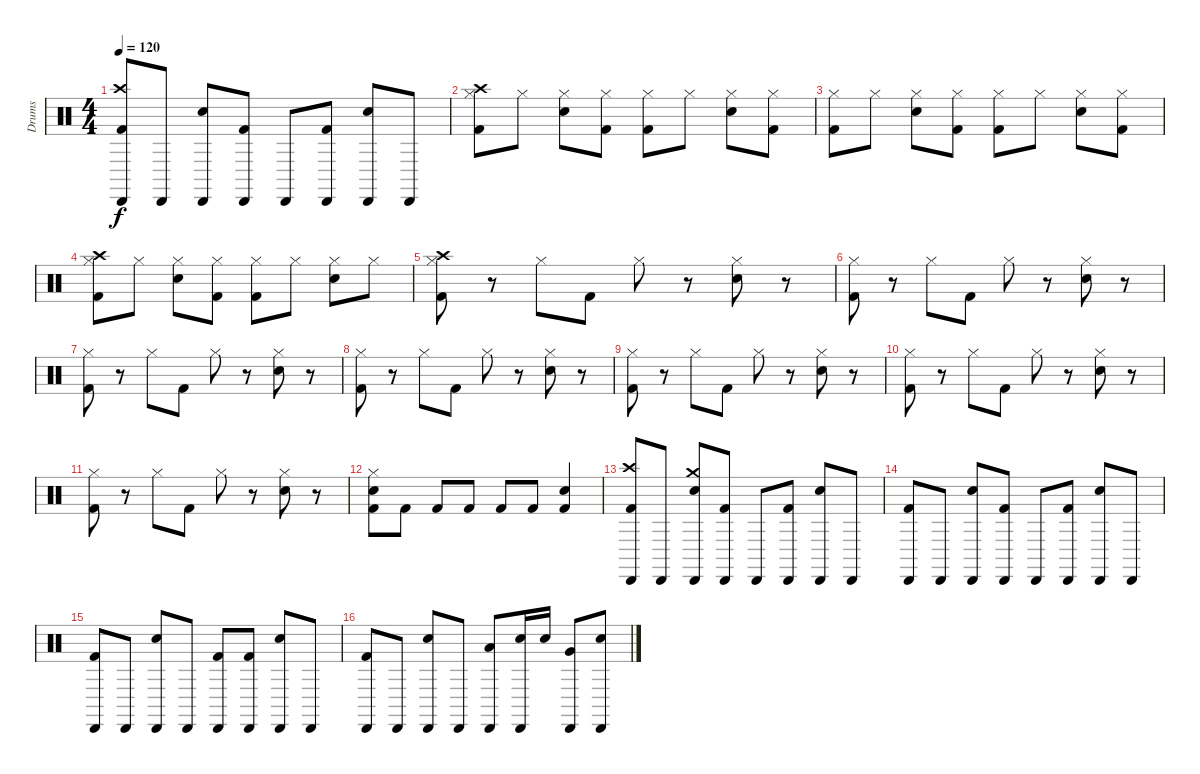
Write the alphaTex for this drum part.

\track ("Drums" "Drums") {instrument percussion}
\staff {score}
\articulation defaults
\ts (4 4)
\tempo 120
\clef neutral
\ks c
("Cabasa (hit)" "Crash high (hit)" "Kick (hit) 2").8{dy f} "Cabasa (hit)".8 ("Cabasa (hit)" "Electric Snare (hit)").8 ("Cabasa (hit)" "Kick (hit) 2").8 "Cabasa (hit)".8 ("Cabasa (hit)" "Kick (hit) 2").8 ("Cabasa (hit)" "Electric Snare (hit)").8 "Cabasa (hit)".8 |
("Hi-Hat (closed)" "Crash high (hit)" "Kick (hit) 2").8 "Hi-Hat (closed)".8 ("Hi-Hat (closed)" "Electric Snare (hit)").8 ("Hi-Hat (closed)" "Kick (hit) 2").8 ("Hi-Hat (closed)" "Kick (hit) 2").8 "Hi-Hat (closed)".8 ("Hi-Hat (closed)" "Electric Snare (hit)").8 ("Hi-Hat (closed)" "Kick (hit) 2").8 |
("Hi-Hat (closed)" "Kick (hit) 2").8 "Hi-Hat (closed)".8 ("Hi-Hat (closed)" "Electric Snare (hit)").8 ("Hi-Hat (closed)" "Kick (hit) 2").8 ("Hi-Hat (closed)" "Kick (hit) 2").8 "Hi-Hat (closed)".8 ("Hi-Hat (closed)" "Electric Snare (hit)").8 ("Hi-Hat (closed)" "Kick (hit) 2").8 |
("Hi-Hat (closed)" "Crash high (hit)" "Kick (hit) 2").8 "Hi-Hat (closed)".8 ("Hi-Hat (closed)" "Electric Snare (hit)").8 ("Hi-Hat (closed)" "Kick (hit) 2").8 ("Hi-Hat (closed)" "Kick (hit) 2").8 "Hi-Hat (closed)".8 ("Hi-Hat (closed)" "Electric Snare (hit)").8 "Hi-Hat (closed)".8 |
("Hi-Hat (closed)" "Crash high (hit)" "Kick (hit) 2").8 r.8 "Hi-Hat (closed)".8 "Kick (hit) 2".8 "Hi-Hat (closed)".8 r.8 ("Hi-Hat (closed)" "Electric Snare (hit)").8 r.8 |
("Hi-Hat (closed)" "Kick (hit) 2").8 r.8 "Hi-Hat (closed)".8 "Kick (hit) 2".8 "Hi-Hat (closed)".8 r.8 ("Hi-Hat (closed)" "Electric Snare (hit)").8 r.8 |
("Hi-Hat (closed)" "Kick (hit) 2").8 r.8 "Hi-Hat (closed)".8 "Kick (hit) 2".8 "Hi-Hat (closed)".8 r.8 ("Hi-Hat (closed)" "Electric Snare (hit)").8 r.8 |
("Hi-Hat (closed)" "Kick (hit) 2").8 r.8 "Hi-Hat (closed)".8 "Kick (hit) 2".8 "Hi-Hat (closed)".8 r.8 ("Hi-Hat (closed)" "Electric Snare (hit)").8 r.8 |
("Hi-Hat (closed)" "Kick (hit) 2").8 r.8 "Hi-Hat (closed)".8 "Kick (hit) 2".8 "Hi-Hat (closed)".8 r.8 ("Hi-Hat (closed)" "Electric Snare (hit)").8 r.8 |
("Hi-Hat (closed)" "Kick (hit) 2").8 r.8 "Hi-Hat (closed)".8 "Kick (hit) 2".8 "Hi-Hat (closed)".8 r.8 ("Hi-Hat (closed)" "Electric Snare (hit)").8 r.8 |
("Hi-Hat (closed)" "Kick (hit) 2").8 r.8 "Hi-Hat (closed)".8 "Kick (hit) 2".8 "Hi-Hat (closed)".8 r.8 ("Hi-Hat (closed)" "Electric Snare (hit)").8 r.8 |
("Hi-Hat (closed)" "Electric Snare (hit)" "Kick (hit) 2").8 "Kick (hit) 2".8 "Kick (hit) 2".8 "Kick (hit) 2".8 "Kick (hit) 2".8 "Kick (hit) 2".8 ("Electric Snare (hit)" "Kick (hit) 2").4 |
("Cabasa (hit)" "Crash high (hit)" "Kick (hit) 2").8 "Cabasa (hit)".8 ("Cabasa (hit)" "Crash medium (hit)" "Electric Snare (hit)").8 ("Cabasa (hit)" "Kick (hit) 2").8 "Cabasa (hit)".8 ("Cabasa (hit)" "Kick (hit) 2").8 ("Cabasa (hit)" "Electric Snare (hit)").8 "Cabasa (hit)".8 |
("Cabasa (hit)" "Kick (hit) 2").8 "Cabasa (hit)".8 ("Cabasa (hit)" "Electric Snare (hit)").8 ("Cabasa (hit)" "Kick (hit) 2").8 "Cabasa (hit)".8 ("Cabasa (hit)" "Kick (hit) 2").8 ("Cabasa (hit)" "Electric Snare (hit)").8 "Cabasa (hit)".8 |
("Cabasa (hit)" "Kick (hit) 2").8 "Cabasa (hit)".8 ("Cabasa (hit)" "Electric Snare (hit)").8 "Cabasa (hit)".8 ("Cabasa (hit)" "Kick (hit) 2").8 ("Cabasa (hit)" "Kick (hit) 2").8 ("Cabasa (hit)" "Electric Snare (hit)").8 "Cabasa (hit)".8 |
("Cabasa (hit)" "Kick (hit) 2").8 "Cabasa (hit)".8 ("Cabasa (hit)" "Electric Snare (hit)").8 "Cabasa (hit)".8 ("Cabasa (hit)" "Low Tom (hit)").8 ("Cabasa (hit)" "Electric Snare (hit)").16 "Electric Snare (hit)".16 ("Cabasa (hit)" "Very Low Tom (hit)").8 ("Cabasa (hit)" "Electric Snare (hit)").8
